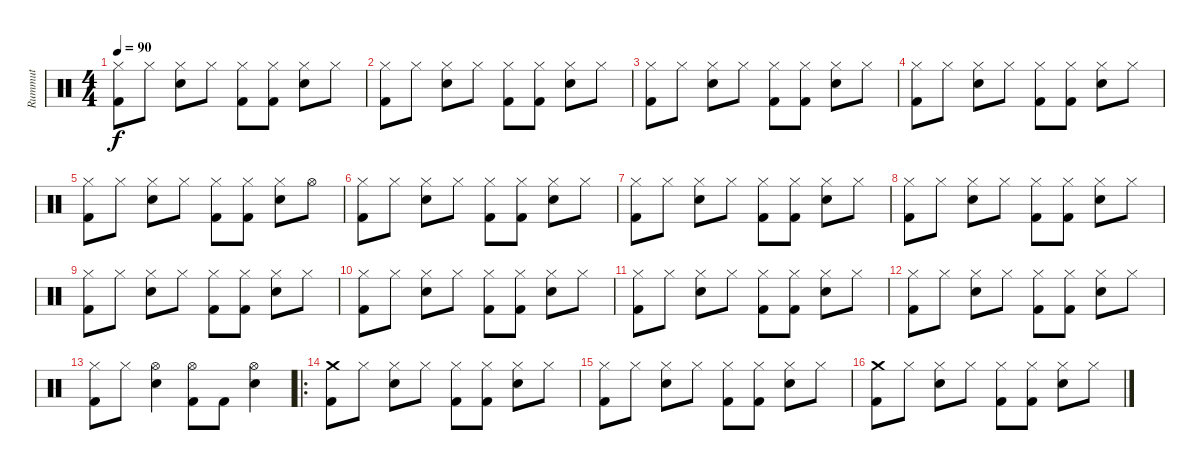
\track ("Rummut" "Rummut") {instrument percussion}
\staff {score}
\articulation defaults
\ts (4 4)
\tempo 90
\clef neutral
\ks c
("Kick (hit) 2" "Hi-Hat (closed)").8{dy f} "Hi-Hat (closed)".8 ("Hi-Hat (closed)" "Snare (hit) 2").8 "Hi-Hat (closed)".8 ("Kick (hit) 2" "Hi-Hat (closed)").8 ("Kick (hit) 2" "Hi-Hat (closed)").8 ("Hi-Hat (closed)" "Snare (hit) 2").8 "Hi-Hat (closed)".8 |
("Kick (hit) 2" "Hi-Hat (closed)").8 "Hi-Hat (closed)".8 ("Hi-Hat (closed)" "Snare (hit) 2").8 "Hi-Hat (closed)".8 ("Kick (hit) 2" "Hi-Hat (closed)").8 ("Kick (hit) 2" "Hi-Hat (closed)").8 ("Hi-Hat (closed)" "Snare (hit) 2").8 "Hi-Hat (closed)".8 |
("Kick (hit) 2" "Hi-Hat (closed)").8 "Hi-Hat (closed)".8 ("Hi-Hat (closed)" "Snare (hit) 2").8 "Hi-Hat (closed)".8 ("Kick (hit) 2" "Hi-Hat (closed)").8 ("Kick (hit) 2" "Hi-Hat (closed)").8 ("Hi-Hat (closed)" "Snare (hit) 2").8 "Hi-Hat (closed)".8 |
("Kick (hit) 2" "Hi-Hat (closed)").8 "Hi-Hat (closed)".8 ("Hi-Hat (closed)" "Snare (hit) 2").8 "Hi-Hat (closed)".8 ("Kick (hit) 2" "Hi-Hat (closed)").8 ("Kick (hit) 2" "Hi-Hat (closed)").8 ("Hi-Hat (closed)" "Snare (hit) 2").8 "Hi-Hat (closed)".8 |
("Kick (hit) 2" "Hi-Hat (closed)").8 "Hi-Hat (closed)".8 ("Hi-Hat (closed)" "Snare (hit) 2").8 "Hi-Hat (closed)".8 ("Kick (hit) 2" "Hi-Hat (closed)").8 ("Kick (hit) 2" "Hi-Hat (closed)").8 ("Hi-Hat (closed)" "Snare (hit) 2").8 "Hi-Hat (open)".8 |
("Kick (hit) 2" "Hi-Hat (closed)").8 "Hi-Hat (closed)".8 ("Hi-Hat (closed)" "Snare (hit) 2").8 "Hi-Hat (closed)".8 ("Kick (hit) 2" "Hi-Hat (closed)").8 ("Kick (hit) 2" "Hi-Hat (closed)").8 ("Hi-Hat (closed)" "Snare (hit) 2").8 "Hi-Hat (closed)".8 |
("Kick (hit) 2" "Hi-Hat (closed)").8 "Hi-Hat (closed)".8 ("Hi-Hat (closed)" "Snare (hit) 2").8 "Hi-Hat (closed)".8 ("Kick (hit) 2" "Hi-Hat (closed)").8 ("Kick (hit) 2" "Hi-Hat (closed)").8 ("Hi-Hat (closed)" "Snare (hit) 2").8 "Hi-Hat (closed)".8 |
("Kick (hit) 2" "Hi-Hat (closed)").8 "Hi-Hat (closed)".8 ("Hi-Hat (closed)" "Snare (hit) 2").8 "Hi-Hat (closed)".8 ("Kick (hit) 2" "Hi-Hat (closed)").8 ("Kick (hit) 2" "Hi-Hat (closed)").8 ("Hi-Hat (closed)" "Snare (hit) 2").8 "Hi-Hat (closed)".8 |
("Kick (hit) 2" "Hi-Hat (closed)").8 "Hi-Hat (closed)".8 ("Hi-Hat (closed)" "Snare (hit) 2").8 "Hi-Hat (closed)".8 ("Kick (hit) 2" "Hi-Hat (closed)").8 ("Kick (hit) 2" "Hi-Hat (closed)").8 ("Hi-Hat (closed)" "Snare (hit) 2").8 "Hi-Hat (closed)".8 |
("Kick (hit) 2" "Hi-Hat (closed)").8 "Hi-Hat (closed)".8 ("Hi-Hat (closed)" "Snare (hit) 2").8 "Hi-Hat (closed)".8 ("Kick (hit) 2" "Hi-Hat (closed)").8 ("Kick (hit) 2" "Hi-Hat (closed)").8 ("Hi-Hat (closed)" "Snare (hit) 2").8 "Hi-Hat (closed)".8 |
("Kick (hit) 2" "Hi-Hat (closed)").8 "Hi-Hat (closed)".8 ("Hi-Hat (closed)" "Snare (hit) 2").8 "Hi-Hat (closed)".8 ("Kick (hit) 2" "Hi-Hat (closed)").8 ("Kick (hit) 2" "Hi-Hat (closed)").8 ("Hi-Hat (closed)" "Snare (hit) 2").8 "Hi-Hat (closed)".8 |
("Kick (hit) 2" "Hi-Hat (closed)").8 "Hi-Hat (closed)".8 ("Hi-Hat (closed)" "Snare (hit) 2").8 "Hi-Hat (closed)".8 ("Kick (hit) 2" "Hi-Hat (closed)").8 ("Kick (hit) 2" "Hi-Hat (closed)").8 ("Hi-Hat (closed)" "Snare (hit) 2").8 "Hi-Hat (closed)".8 |
("Kick (hit) 2" "Hi-Hat (closed)").8 "Hi-Hat (closed)".8 ("Hi-Hat (open)" "Snare (hit) 2").4 ("Kick (hit) 2" "Hi-Hat (open)").8 "Kick (hit) 2".8 ("Hi-Hat (open)" "Snare (hit) 2").4 |
\ro
("Kick (hit) 2" "Crash medium (hit)").8 "Hi-Hat (closed)".8 ("Hi-Hat (closed)" "Snare (hit) 2").8 "Hi-Hat (closed)".8 ("Kick (hit) 2" "Hi-Hat (closed)").8 ("Kick (hit) 2" "Hi-Hat (closed)").8 ("Hi-Hat (closed)" "Snare (hit) 2").8 "Hi-Hat (closed)".8 |
("Kick (hit) 2" "Hi-Hat (closed)").8 "Hi-Hat (closed)".8 ("Hi-Hat (closed)" "Snare (hit) 2").8 "Hi-Hat (closed)".8 ("Kick (hit) 2" "Hi-Hat (closed)").8 ("Kick (hit) 2" "Hi-Hat (closed)").8 ("Hi-Hat (closed)" "Snare (hit) 2").8 "Hi-Hat (closed)".8 |
("Kick (hit) 2" "Crash medium (hit)").8 "Hi-Hat (closed)".8 ("Hi-Hat (closed)" "Snare (hit) 2").8 "Hi-Hat (closed)".8 ("Kick (hit) 2" "Hi-Hat (closed)").8 ("Kick (hit) 2" "Hi-Hat (closed)").8 ("Hi-Hat (closed)" "Snare (hit) 2").8 "Hi-Hat (closed)".8
